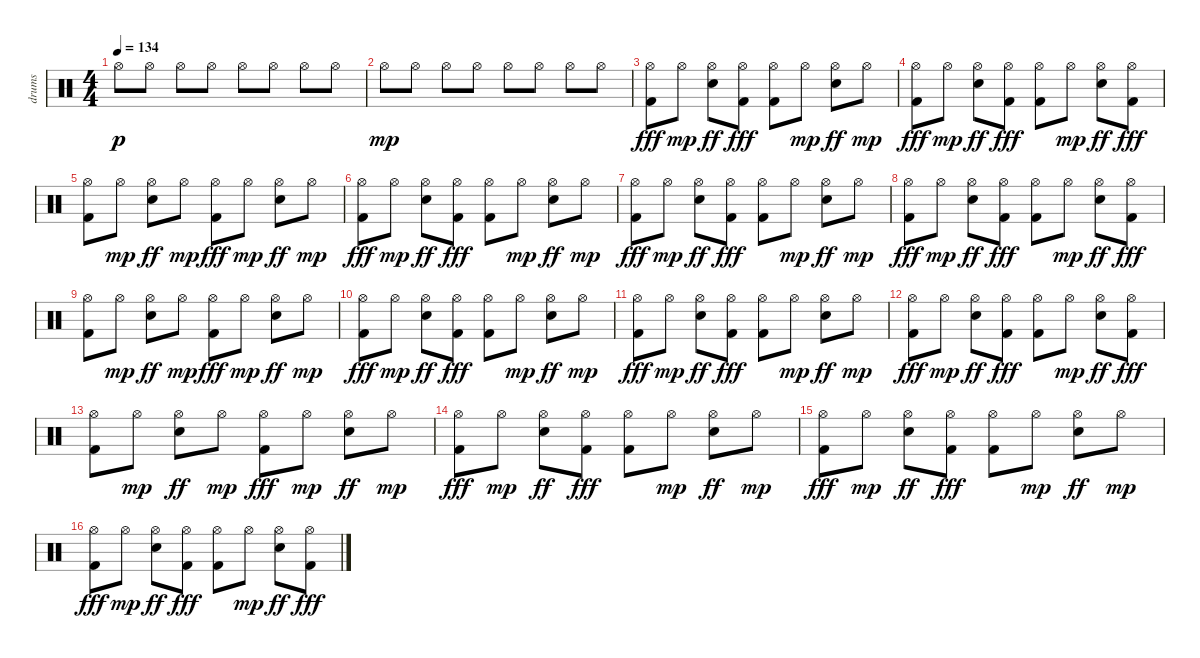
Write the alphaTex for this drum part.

\track ("drums" "drums") {instrument percussion}
\staff {score}
\articulation defaults
\ts (4 4)
\tempo 134
\clef neutral
\ks c "Hi-Hat (open)".8{dy p} "Hi-Hat (open)".8 "Hi-Hat (open)".8 "Hi-Hat (open)".8 "Hi-Hat (open)".8{volume 16} "Hi-Hat (open)".8 "Hi-Hat (open)".8 "Hi-Hat (open)".8
|
"Hi-Hat (open)".8{dy mp volume 13} "Hi-Hat (open)".8 "Hi-Hat (open)".8 "Hi-Hat (open)".8 "Hi-Hat (open)".8 "Hi-Hat (open)".8 "Hi-Hat (open)".8 "Hi-Hat (open)".8 |
("Hi-Hat (open)" "Kick (hit) 2").8{dy fff volume 12} "Hi-Hat (open)".8{dy mp} ("Hi-Hat (open)" "Electric Snare (hit)").8{dy ff} ("Hi-Hat (open)" "Kick (hit) 2").8{dy fff} ("Hi-Hat (open)" "Kick (hit) 2").8 "Hi-Hat (open)".8{dy mp} ("Hi-Hat (open)" "Electric Snare (hit)").8{dy ff} "Hi-Hat (open)".8{dy mp} |
("Hi-Hat (open)" "Kick (hit) 2").8{dy fff} "Hi-Hat (open)".8{dy mp} ("Hi-Hat (open)" "Electric Snare (hit)").8{dy ff} ("Hi-Hat (open)" "Kick (hit) 2").8{dy fff} ("Hi-Hat (open)" "Kick (hit) 2").8 "Hi-Hat (open)".8{dy mp} ("Hi-Hat (open)" "Electric Snare (hit)").8{dy ff} ("Hi-Hat (open)" "Kick (hit) 2").8{dy fff} |
("Hi-Hat (open)" "Kick (hit) 2").8 "Hi-Hat (open)".8{dy mp} ("Hi-Hat (open)" "Electric Snare (hit)").8{dy ff} "Hi-Hat (open)".8{dy mp} ("Hi-Hat (open)" "Kick (hit) 2").8{dy fff} "Hi-Hat (open)".8{dy mp} ("Hi-Hat (open)" "Electric Snare (hit)").8{dy ff} "Hi-Hat (open)".8{dy mp} |
("Hi-Hat (open)" "Kick (hit) 2").8{dy fff} "Hi-Hat (open)".8{dy mp} ("Hi-Hat (open)" "Electric Snare (hit)").8{dy ff} ("Hi-Hat (open)" "Kick (hit) 2").8{dy fff} ("Hi-Hat (open)" "Kick (hit) 2").8 "Hi-Hat (open)".8{dy mp} ("Hi-Hat (open)" "Electric Snare (hit)").8{dy ff} "Hi-Hat (open)".8{dy mp} |
("Hi-Hat (open)" "Kick (hit) 2").8{dy fff} "Hi-Hat (open)".8{dy mp} ("Hi-Hat (open)" "Electric Snare (hit)").8{dy ff} ("Hi-Hat (open)" "Kick (hit) 2").8{dy fff} ("Hi-Hat (open)" "Kick (hit) 2").8 "Hi-Hat (open)".8{dy mp} ("Hi-Hat (open)" "Electric Snare (hit)").8{dy ff} "Hi-Hat (open)".8{dy mp} |
("Hi-Hat (open)" "Kick (hit) 2").8{dy fff} "Hi-Hat (open)".8{dy mp} ("Hi-Hat (open)" "Electric Snare (hit)").8{dy ff} ("Hi-Hat (open)" "Kick (hit) 2").8{dy fff} ("Hi-Hat (open)" "Kick (hit) 2").8 "Hi-Hat (open)".8{dy mp} ("Hi-Hat (open)" "Electric Snare (hit)").8{dy ff} ("Hi-Hat (open)" "Kick (hit) 2").8{dy fff} |
("Hi-Hat (open)" "Kick (hit) 2").8 "Hi-Hat (open)".8{dy mp} ("Hi-Hat (open)" "Electric Snare (hit)").8{dy ff} "Hi-Hat (open)".8{dy mp} ("Hi-Hat (open)" "Kick (hit) 2").8{dy fff} "Hi-Hat (open)".8{dy mp} ("Hi-Hat (open)" "Electric Snare (hit)").8{dy ff} "Hi-Hat (open)".8{dy mp} |
("Hi-Hat (open)" "Kick (hit) 2").8{dy fff} "Hi-Hat (open)".8{dy mp} ("Hi-Hat (open)" "Electric Snare (hit)").8{dy ff} ("Hi-Hat (open)" "Kick (hit) 2").8{dy fff} ("Hi-Hat (open)" "Kick (hit) 2").8 "Hi-Hat (open)".8{dy mp} ("Hi-Hat (open)" "Electric Snare (hit)").8{dy ff} "Hi-Hat (open)".8{dy mp} |
("Hi-Hat (open)" "Kick (hit) 2").8{dy fff} "Hi-Hat (open)".8{dy mp} ("Hi-Hat (open)" "Electric Snare (hit)").8{dy ff} ("Hi-Hat (open)" "Kick (hit) 2").8{dy fff} ("Hi-Hat (open)" "Kick (hit) 2").8 "Hi-Hat (open)".8{dy mp} ("Hi-Hat (open)" "Electric Snare (hit)").8{dy ff} "Hi-Hat (open)".8{dy mp} |
("Hi-Hat (open)" "Kick (hit) 2").8{dy fff} "Hi-Hat (open)".8{dy mp} ("Hi-Hat (open)" "Electric Snare (hit)").8{dy ff} ("Hi-Hat (open)" "Kick (hit) 2").8{dy fff} ("Hi-Hat (open)" "Kick (hit) 2").8 "Hi-Hat (open)".8{dy mp} ("Hi-Hat (open)" "Electric Snare (hit)").8{dy ff} ("Hi-Hat (open)" "Kick (hit) 2").8{dy fff} |
("Hi-Hat (open)" "Kick (hit) 2").8 "Hi-Hat (open)".8{dy mp} ("Hi-Hat (open)" "Electric Snare (hit)").8{dy ff} "Hi-Hat (open)".8{dy mp} ("Hi-Hat (open)" "Kick (hit) 2").8{dy fff} "Hi-Hat (open)".8{dy mp} ("Hi-Hat (open)" "Electric Snare (hit)").8{dy ff} "Hi-Hat (open)".8{dy mp} |
("Hi-Hat (open)" "Kick (hit) 2").8{dy fff} "Hi-Hat (open)".8{dy mp} ("Hi-Hat (open)" "Electric Snare (hit)").8{dy ff} ("Hi-Hat (open)" "Kick (hit) 2").8{dy fff} ("Hi-Hat (open)" "Kick (hit) 2").8 "Hi-Hat (open)".8{dy mp} ("Hi-Hat (open)" "Electric Snare (hit)").8{dy ff} "Hi-Hat (open)".8{dy mp} |
("Hi-Hat (open)" "Kick (hit) 2").8{dy fff} "Hi-Hat (open)".8{dy mp} ("Hi-Hat (open)" "Electric Snare (hit)").8{dy ff} ("Hi-Hat (open)" "Kick (hit) 2").8{dy fff} ("Hi-Hat (open)" "Kick (hit) 2").8 "Hi-Hat (open)".8{dy mp} ("Hi-Hat (open)" "Electric Snare (hit)").8{dy ff} "Hi-Hat (open)".8{dy mp} |
("Hi-Hat (open)" "Kick (hit) 2").8{dy fff} "Hi-Hat (open)".8{dy mp} ("Hi-Hat (open)" "Electric Snare (hit)").8{dy ff} ("Hi-Hat (open)" "Kick (hit) 2").8{dy fff} ("Hi-Hat (open)" "Kick (hit) 2").8 "Hi-Hat (open)".8{dy mp} ("Hi-Hat (open)" "Electric Snare (hit)").8{dy ff} ("Hi-Hat (open)" "Kick (hit) 2").8{dy fff}
